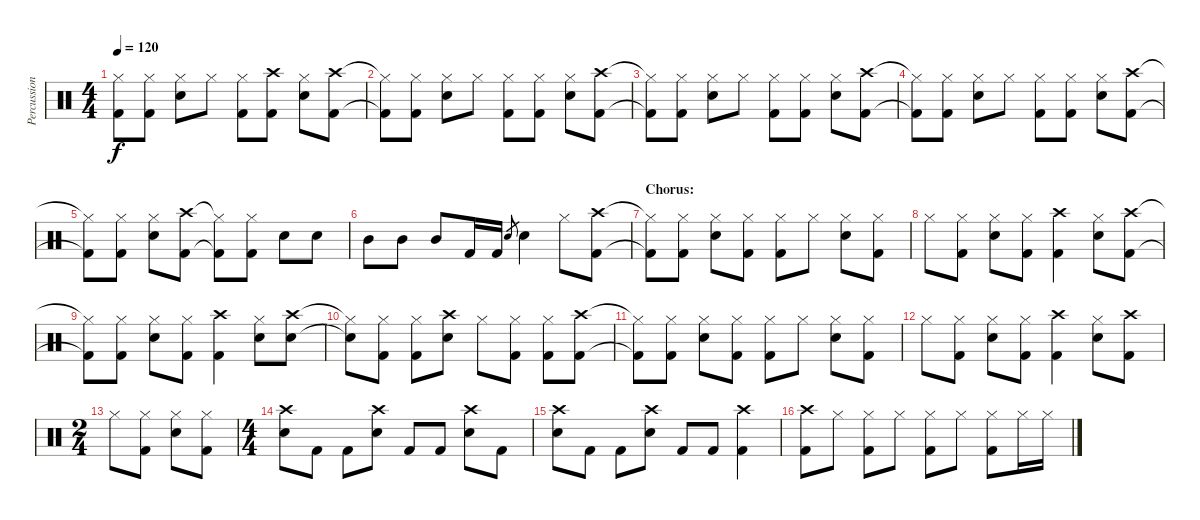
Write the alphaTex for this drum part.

\track ("Percussion" "Percussion") {instrument percussion}
\staff {score}
\articulation defaults
\ts (4 4)
\tempo 120
\clef neutral
\ks c
("Hi-Hat (closed)"{t} "Kick (hit) 2"{t}).8{dy f} ("Hi-Hat (closed)" "Kick (hit) 2").8 ("Hi-Hat (closed)" "Snare (hit) 2").8 "Hi-Hat (closed)".8 ("Hi-Hat (closed)" "Kick (hit) 2").8 ("Crash high (hit)" "Kick (hit) 2").8 ("Hi-Hat (closed)" "Snare (hit) 2").8 ("Crash high (hit)" "Kick (hit) 2").8 |
("Hi-Hat (closed)"{t} "Kick (hit) 2"{t}).8 ("Hi-Hat (closed)" "Kick (hit) 2").8 ("Hi-Hat (closed)" "Snare (hit) 2").8 "Hi-Hat (closed)".8 ("Hi-Hat (closed)" "Kick (hit) 2").8 ("Hi-Hat (closed)" "Kick (hit) 2").8 ("Hi-Hat (closed)" "Snare (hit) 2").8 ("Crash high (hit)" "Kick (hit) 2").8 |
("Hi-Hat (closed)"{t} "Kick (hit) 2"{t}).8 ("Hi-Hat (closed)" "Kick (hit) 2").8 ("Hi-Hat (closed)" "Snare (hit) 2").8 "Hi-Hat (closed)".8 ("Hi-Hat (closed)" "Kick (hit) 2").8 ("Hi-Hat (closed)" "Kick (hit) 2").8 ("Hi-Hat (closed)" "Snare (hit) 2").8 ("Crash high (hit)" "Kick (hit) 2").8 |
("Hi-Hat (closed)"{t} "Kick (hit) 2"{t}).8 ("Hi-Hat (closed)" "Kick (hit) 2").8 ("Hi-Hat (closed)" "Snare (hit) 2").8 "Hi-Hat (closed)".8 ("Hi-Hat (closed)" "Kick (hit) 2").8 ("Hi-Hat (closed)" "Kick (hit) 2").8 ("Hi-Hat (closed)" "Snare (hit) 2").8 ("Crash high (hit)" "Kick (hit) 2").8 |
("Hi-Hat (closed)"{t} "Kick (hit) 2"{t}).8 ("Hi-Hat (closed)" "Kick (hit) 2").8 ("Hi-Hat (closed)" "Snare (hit) 2").8 ("Crash high (hit)" "Kick (hit) 2").8 ("Hi-Hat (closed)"{t} "Kick (hit) 2"{t}).8 ("Hi-Hat (closed)" "Kick (hit) 2").8 "Snare (hit) 2".8 "Snare (hit) 2".8 |
"Mid Tom (hit)".8 "Mid Tom (hit)".8 "Mid Tom (hit)".8 "Kick (hit) 2".16 "Kick (hit) 2".16 "Snare (hit) 2".8{gr} "Snare (hit) 2".4 "Hi-Hat (closed)".8 ("Crash high (hit)" "Kick (hit) 2").8 |
\section ("" "Chorus:")
("Hi-Hat (closed)"{t} "Kick (hit) 2"{t}).8 ("Hi-Hat (closed)" "Kick (hit) 2").8 ("Hi-Hat (closed)" "Snare (hit) 2").8 ("Hi-Hat (closed)" "Kick (hit) 2").8 ("Hi-Hat (closed)" "Kick (hit) 2").8 "Hi-Hat (closed)".8 ("Hi-Hat (closed)" "Snare (hit) 2").8 ("Hi-Hat (closed)" "Kick (hit) 2").8 |
"Hi-Hat (closed)".8 ("Hi-Hat (closed)" "Kick (hit) 2").8 ("Hi-Hat (closed)" "Snare (hit) 2").8 ("Hi-Hat (closed)" "Kick (hit) 2").8 ("Crash high (hit)" "Kick (hit) 2").4 ("Hi-Hat (closed)" "Snare (hit) 2").8 ("Crash high (hit)" "Kick (hit) 2").8 |
("Hi-Hat (closed)"{t} "Kick (hit) 2"{t}).8 ("Hi-Hat (closed)" "Kick (hit) 2").8 ("Hi-Hat (closed)" "Snare (hit) 2").8 ("Hi-Hat (closed)" "Kick (hit) 2").8 ("Crash high (hit)" "Kick (hit) 2").4 ("Hi-Hat (closed)" "Snare (hit) 2").8 ("Crash high (hit)" "Snare (hit) 2").8 |
("Hi-Hat (closed)"{t} "Snare (hit)"{t}).8 ("Hi-Hat (closed)" "Kick (hit) 2").8 ("Hi-Hat (closed)" "Kick (hit) 2").8 ("Crash high (hit)" "Snare (hit) 2").8 "Hi-Hat (closed)".8 ("Hi-Hat (closed)" "Kick (hit) 2").8 ("Hi-Hat (closed)" "Kick (hit) 2").8 ("Crash high (hit)" "Kick (hit) 2").8 |
("Hi-Hat (closed)"{t} "Kick (hit) 2"{t}).8 ("Hi-Hat (closed)" "Kick (hit) 2").8 ("Hi-Hat (closed)" "Snare (hit) 2").8 ("Hi-Hat (closed)" "Kick (hit) 2").8 ("Hi-Hat (closed)" "Kick (hit) 2").8 "Hi-Hat (closed)".8 ("Hi-Hat (closed)" "Snare (hit) 2").8 ("Hi-Hat (closed)" "Kick (hit) 2").8 |
"Hi-Hat (closed)".8 ("Hi-Hat (closed)" "Kick (hit) 2").8 ("Hi-Hat (closed)" "Snare (hit) 2").8 ("Hi-Hat (closed)" "Kick (hit) 2").8 ("Crash high (hit)" "Kick (hit) 2").4 ("Hi-Hat (closed)" "Snare (hit) 2").8 ("Crash high (hit)" "Kick (hit) 2").8 |
\ts (2 4)
"Hi-Hat (closed)".8 ("Hi-Hat (closed)" "Kick (hit) 2").8 ("Hi-Hat (closed)" "Snare (hit) 2").8 ("Hi-Hat (closed)" "Kick (hit) 2").8 |
\ts (4 4)
("Crash high (hit)" "Snare (hit) 2").8 "Kick (hit) 2".8 "Kick (hit) 2".8 ("Crash high (hit)" "Snare (hit) 2").8 "Kick (hit) 2".8 "Kick (hit) 2".8 ("Crash high (hit)" "Snare (hit) 2").8 "Kick (hit) 2".8 |
("Crash high (hit)" "Snare (hit) 2").8 "Kick (hit) 2".8 "Kick (hit) 2".8 ("Crash high (hit)" "Snare (hit) 2").8 "Kick (hit) 2".8 "Kick (hit) 2".8 ("Crash high (hit)" "Kick (hit) 2").4 |
("Crash high (hit)" "Kick (hit) 2").8 "Hi-Hat (closed)".8 ("Hi-Hat (closed)" "Kick (hit) 2").8 "Hi-Hat (closed)".8 ("Hi-Hat (closed)" "Kick (hit) 2").8 "Hi-Hat (closed)".8 ("Hi-Hat (closed)" "Kick (hit) 2").8 "Hi-Hat (closed)".16 "Hi-Hat (closed)".16
